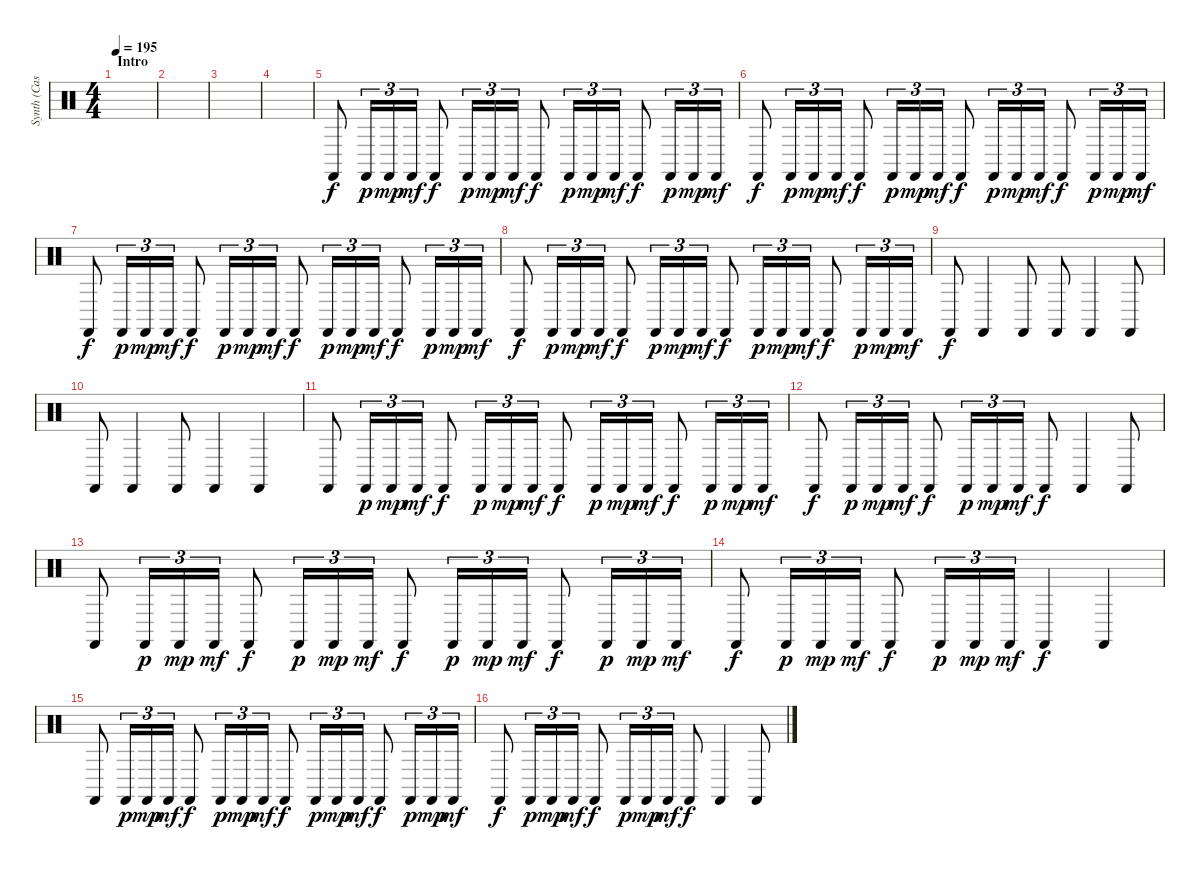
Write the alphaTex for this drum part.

\track ("Synth (Castinets)" "Synth (Cas") {instrument percussion}
\staff {score}
\articulation defaults
\ts (4 4)
\section ("" "Intro")
\tempo 195
\clef neutral
\ks c
|
|
|
|
"Castanets (hit)".8 "Castanets (hit)".16{tu (3 2) dy p} "Castanets (hit)".16{tu (3 2) dy mp} "Castanets (hit)".16{tu (3 2) dy mf} "Castanets (hit)".8{dy f} "Castanets (hit)".16{tu (3 2) dy p} "Castanets (hit)".16{tu (3 2) dy mp} "Castanets (hit)".16{tu (3 2) dy mf} "Castanets (hit)".8{dy f} "Castanets (hit)".16{tu (3 2) dy p} "Castanets (hit)".16{tu (3 2) dy mp} "Castanets (hit)".16{tu (3 2) dy mf} "Castanets (hit)".8{dy f} "Castanets (hit)".16{tu (3 2) dy p} "Castanets (hit)".16{tu (3 2) dy mp} "Castanets (hit)".16{tu (3 2) dy mf} |
"Castanets (hit)".8{dy f} "Castanets (hit)".16{tu (3 2) dy p} "Castanets (hit)".16{tu (3 2) dy mp} "Castanets (hit)".16{tu (3 2) dy mf} "Castanets (hit)".8{dy f} "Castanets (hit)".16{tu (3 2) dy p} "Castanets (hit)".16{tu (3 2) dy mp} "Castanets (hit)".16{tu (3 2) dy mf} "Castanets (hit)".8{dy f} "Castanets (hit)".16{tu (3 2) dy p} "Castanets (hit)".16{tu (3 2) dy mp} "Castanets (hit)".16{tu (3 2) dy mf} "Castanets (hit)".8{dy f} "Castanets (hit)".16{tu (3 2) dy p} "Castanets (hit)".16{tu (3 2) dy mp} "Castanets (hit)".16{tu (3 2) dy mf} |
"Castanets (hit)".8{dy f} "Castanets (hit)".16{tu (3 2) dy p} "Castanets (hit)".16{tu (3 2) dy mp} "Castanets (hit)".16{tu (3 2) dy mf} "Castanets (hit)".8{dy f} "Castanets (hit)".16{tu (3 2) dy p} "Castanets (hit)".16{tu (3 2) dy mp} "Castanets (hit)".16{tu (3 2) dy mf} "Castanets (hit)".8{dy f} "Castanets (hit)".16{tu (3 2) dy p} "Castanets (hit)".16{tu (3 2) dy mp} "Castanets (hit)".16{tu (3 2) dy mf} "Castanets (hit)".8{dy f} "Castanets (hit)".16{tu (3 2) dy p} "Castanets (hit)".16{tu (3 2) dy mp} "Castanets (hit)".16{tu (3 2) dy mf} |
"Castanets (hit)".8{dy f} "Castanets (hit)".16{tu (3 2) dy p} "Castanets (hit)".16{tu (3 2) dy mp} "Castanets (hit)".16{tu (3 2) dy mf} "Castanets (hit)".8{dy f} "Castanets (hit)".16{tu (3 2) dy p} "Castanets (hit)".16{tu (3 2) dy mp} "Castanets (hit)".16{tu (3 2) dy mf} "Castanets (hit)".8{dy f} "Castanets (hit)".16{tu (3 2) dy p} "Castanets (hit)".16{tu (3 2) dy mp} "Castanets (hit)".16{tu (3 2) dy mf} "Castanets (hit)".8{dy f} "Castanets (hit)".16{tu (3 2) dy p} "Castanets (hit)".16{tu (3 2) dy mp} "Castanets (hit)".16{tu (3 2) dy mf} |
"Castanets (hit)".8{dy f} "Castanets (hit)".4 "Castanets (hit)".8 "Castanets (hit)".8 "Castanets (hit)".4 "Castanets (hit)".8 |
"Castanets (hit)".8 "Castanets (hit)".4 "Castanets (hit)".8 "Castanets (hit)".4 "Castanets (hit)".4 |
"Castanets (hit)".8 "Castanets (hit)".16{tu (3 2) dy p} "Castanets (hit)".16{tu (3 2) dy mp} "Castanets (hit)".16{tu (3 2) dy mf} "Castanets (hit)".8{dy f} "Castanets (hit)".16{tu (3 2) dy p} "Castanets (hit)".16{tu (3 2) dy mp} "Castanets (hit)".16{tu (3 2) dy mf} "Castanets (hit)".8{dy f} "Castanets (hit)".16{tu (3 2) dy p} "Castanets (hit)".16{tu (3 2) dy mp} "Castanets (hit)".16{tu (3 2) dy mf} "Castanets (hit)".8{dy f} "Castanets (hit)".16{tu (3 2) dy p} "Castanets (hit)".16{tu (3 2) dy mp} "Castanets (hit)".16{tu (3 2) dy mf} |
"Castanets (hit)".8{dy f} "Castanets (hit)".16{tu (3 2) dy p} "Castanets (hit)".16{tu (3 2) dy mp} "Castanets (hit)".16{tu (3 2) dy mf} "Castanets (hit)".8{dy f} "Castanets (hit)".16{tu (3 2) dy p} "Castanets (hit)".16{tu (3 2) dy mp} "Castanets (hit)".16{tu (3 2) dy mf} "Castanets (hit)".8{dy f} "Castanets (hit)".4 "Castanets (hit)".8 |
"Castanets (hit)".8 "Castanets (hit)".16{tu (3 2) dy p} "Castanets (hit)".16{tu (3 2) dy mp} "Castanets (hit)".16{tu (3 2) dy mf} "Castanets (hit)".8{dy f} "Castanets (hit)".16{tu (3 2) dy p} "Castanets (hit)".16{tu (3 2) dy mp} "Castanets (hit)".16{tu (3 2) dy mf} "Castanets (hit)".8{dy f} "Castanets (hit)".16{tu (3 2) dy p} "Castanets (hit)".16{tu (3 2) dy mp} "Castanets (hit)".16{tu (3 2) dy mf} "Castanets (hit)".8{dy f} "Castanets (hit)".16{tu (3 2) dy p} "Castanets (hit)".16{tu (3 2) dy mp} "Castanets (hit)".16{tu (3 2) dy mf} |
"Castanets (hit)".8{dy f} "Castanets (hit)".16{tu (3 2) dy p} "Castanets (hit)".16{tu (3 2) dy mp} "Castanets (hit)".16{tu (3 2) dy mf} "Castanets (hit)".8{dy f} "Castanets (hit)".16{tu (3 2) dy p} "Castanets (hit)".16{tu (3 2) dy mp} "Castanets (hit)".16{tu (3 2) dy mf} "Castanets (hit)".4{dy f} "Castanets (hit)".4 |
"Castanets (hit)".8 "Castanets (hit)".16{tu (3 2) dy p} "Castanets (hit)".16{tu (3 2) dy mp} "Castanets (hit)".16{tu (3 2) dy mf} "Castanets (hit)".8{dy f} "Castanets (hit)".16{tu (3 2) dy p} "Castanets (hit)".16{tu (3 2) dy mp} "Castanets (hit)".16{tu (3 2) dy mf} "Castanets (hit)".8{dy f} "Castanets (hit)".16{tu (3 2) dy p} "Castanets (hit)".16{tu (3 2) dy mp} "Castanets (hit)".16{tu (3 2) dy mf} "Castanets (hit)".8{dy f} "Castanets (hit)".16{tu (3 2) dy p} "Castanets (hit)".16{tu (3 2) dy mp} "Castanets (hit)".16{tu (3 2) dy mf} |
"Castanets (hit)".8{dy f} "Castanets (hit)".16{tu (3 2) dy p} "Castanets (hit)".16{tu (3 2) dy mp} "Castanets (hit)".16{tu (3 2) dy mf} "Castanets (hit)".8{dy f} "Castanets (hit)".16{tu (3 2) dy p} "Castanets (hit)".16{tu (3 2) dy mp} "Castanets (hit)".16{tu (3 2) dy mf} "Castanets (hit)".8{dy f} "Castanets (hit)".4 "Castanets (hit)".8
